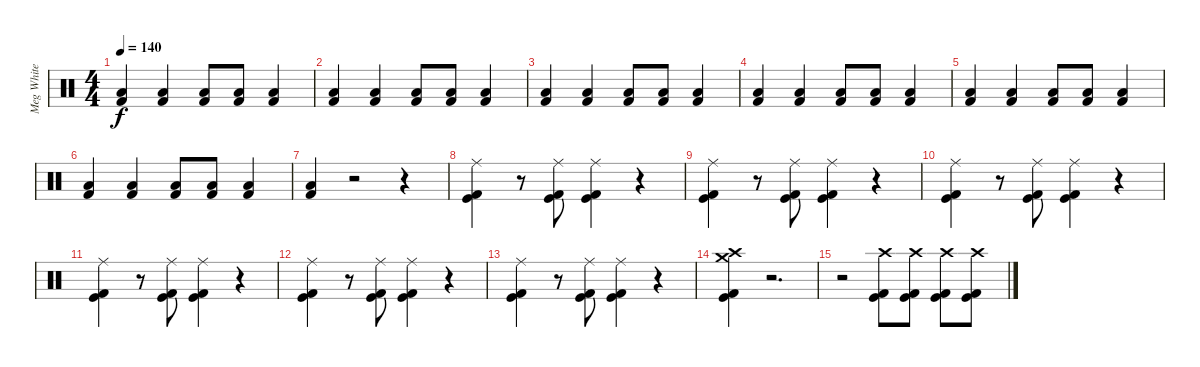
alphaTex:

\track ("Meg White" "Meg White") {instrument percussion}
\staff {score}
\articulation defaults
\ts (4 4)
\tempo 140
\clef neutral
\ks c
("Kick (hit) 2" "Low Floor Tom (hit)").4{dy f} ("Kick (hit) 2" "Low Floor Tom (hit)").4 ("Kick (hit) 2" "Low Floor Tom (hit)").8 ("Kick (hit) 2" "Low Floor Tom (hit)").8 ("Kick (hit) 2" "Low Floor Tom (hit)").4 |
("Kick (hit) 2" "Low Floor Tom (hit)").4 ("Kick (hit) 2" "Low Floor Tom (hit)").4 ("Kick (hit) 2" "Low Floor Tom (hit)").8 ("Kick (hit) 2" "Low Floor Tom (hit)").8 ("Kick (hit) 2" "Low Floor Tom (hit)").4 |
("Kick (hit) 2" "Low Floor Tom (hit)").4 ("Kick (hit) 2" "Low Floor Tom (hit)").4 ("Kick (hit) 2" "Low Floor Tom (hit)").8 ("Kick (hit) 2" "Low Floor Tom (hit)").8 ("Kick (hit) 2" "Low Floor Tom (hit)").4 |
("Kick (hit) 2" "Low Floor Tom (hit)").4 ("Kick (hit) 2" "Low Floor Tom (hit)").4 ("Kick (hit) 2" "Low Floor Tom (hit)").8 ("Kick (hit) 2" "Low Floor Tom (hit)").8 ("Kick (hit) 2" "Low Floor Tom (hit)").4 |
("Kick (hit) 2" "Low Floor Tom (hit)").4 ("Kick (hit) 2" "Low Floor Tom (hit)").4 ("Kick (hit) 2" "Low Floor Tom (hit)").8 ("Kick (hit) 2" "Low Floor Tom (hit)").8 ("Kick (hit) 2" "Low Floor Tom (hit)").4 |
("Kick (hit) 2" "Low Floor Tom (hit)").4 ("Kick (hit) 2" "Low Floor Tom (hit)").4 ("Kick (hit) 2" "Low Floor Tom (hit)").8 ("Kick (hit) 2" "Low Floor Tom (hit)").8 ("Kick (hit) 2" "Low Floor Tom (hit)").4 |
("Kick (hit) 2" "Low Floor Tom (hit)").4 r.2 r.4 |
("Kick (hit) 2" "Kick (hit)" "Ride (middle)").4 r.8 ("Kick (hit) 2" "Kick (hit)" "Ride (middle)").8 ("Kick (hit) 2" "Kick (hit)" "Ride (middle)").4 r.4 |
("Kick (hit) 2" "Kick (hit)" "Ride (middle)").4 r.8 ("Kick (hit) 2" "Kick (hit)" "Ride (middle)").8 ("Kick (hit) 2" "Kick (hit)" "Ride (middle)").4 r.4 |
("Kick (hit) 2" "Kick (hit)" "Ride (middle)").4 r.8 ("Kick (hit) 2" "Kick (hit)" "Ride (middle)").8 ("Kick (hit) 2" "Kick (hit)" "Ride (middle)").4 r.4 |
("Kick (hit) 2" "Kick (hit)" "Ride (middle)").4 r.8 ("Kick (hit) 2" "Kick (hit)" "Ride (middle)").8 ("Kick (hit) 2" "Kick (hit)" "Ride (middle)").4 r.4 |
("Kick (hit) 2" "Kick (hit)" "Ride (middle)").4 r.8 ("Kick (hit) 2" "Kick (hit)" "Ride (middle)").8 ("Kick (hit) 2" "Kick (hit)" "Ride (middle)").4 r.4 |
("Kick (hit) 2" "Kick (hit)" "Ride (middle)").4 r.8 ("Kick (hit) 2" "Kick (hit)" "Ride (middle)").8 ("Kick (hit) 2" "Kick (hit)" "Ride (middle)").4 r.4 |
("Kick (hit) 2" "Kick (hit)" "Crash high (hit)" "Crash medium (hit)").4 r.2{d} |
r.2 ("Kick (hit) 2" "Kick (hit)" "Crash high (hit)").8 ("Kick (hit) 2" "Kick (hit)" "Crash high (hit)").8 ("Kick (hit) 2" "Kick (hit)" "Crash high (hit)").8 ("Kick (hit) 2" "Kick (hit)" "Crash high (hit)").8
